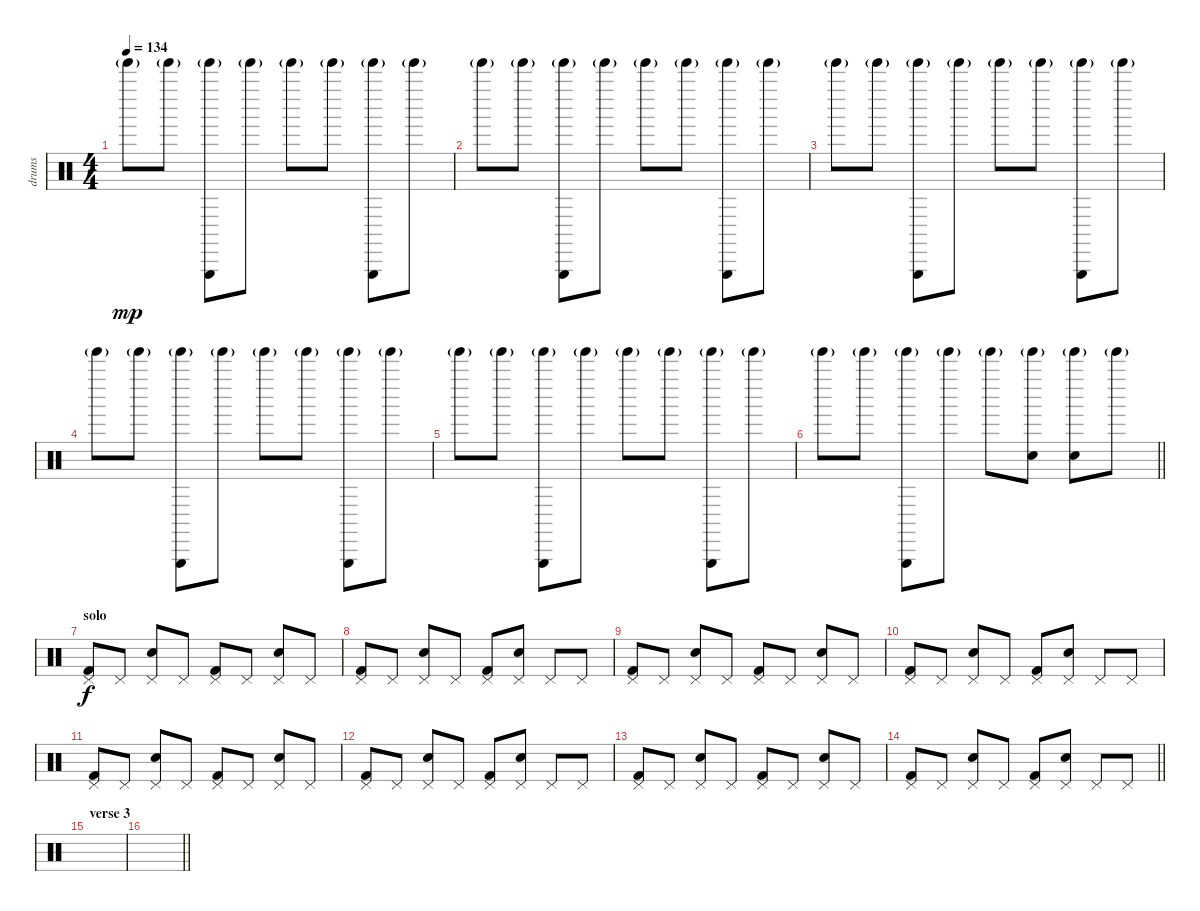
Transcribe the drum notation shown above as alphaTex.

\track ("drums" "drums") {instrument percussion}
\staff {score}
\articulation defaults
\ts (4 4)
\tempo 134
\clef neutral
\ks c "Tinkle Bell (hit)"{g}.8{dy mp} "Tinkle Bell (hit)"{g}.8
("Triangle (hit)" "Tinkle Bell (hit)"{g}).8 "Tinkle Bell (hit)"{g}.8 "Tinkle Bell (hit)"{g}.8 "Tinkle Bell (hit)"{g}.8 ("Triangle (hit)" "Tinkle Bell (hit)"{g}).8 "Tinkle Bell (hit)"{g}.8 |
"Tinkle Bell (hit)"{g}.8 "Tinkle Bell (hit)"{g}.8 ("Triangle (hit)" "Tinkle Bell (hit)"{g}).8 "Tinkle Bell (hit)"{g}.8 "Tinkle Bell (hit)"{g}.8 "Tinkle Bell (hit)"{g}.8 ("Triangle (hit)" "Tinkle Bell (hit)"{g}).8 "Tinkle Bell (hit)"{g}.8 |
"Tinkle Bell (hit)"{g}.8 "Tinkle Bell (hit)"{g}.8 ("Triangle (hit)" "Tinkle Bell (hit)"{g}).8 "Tinkle Bell (hit)"{g}.8 "Tinkle Bell (hit)"{g}.8 "Tinkle Bell (hit)"{g}.8 ("Triangle (hit)" "Tinkle Bell (hit)"{g}).8 "Tinkle Bell (hit)"{g}.8 |
"Tinkle Bell (hit)"{g}.8 "Tinkle Bell (hit)"{g}.8 ("Triangle (hit)" "Tinkle Bell (hit)"{g}).8 "Tinkle Bell (hit)"{g}.8 "Tinkle Bell (hit)"{g}.8 "Tinkle Bell (hit)"{g}.8 ("Triangle (hit)" "Tinkle Bell (hit)"{g}).8 "Tinkle Bell (hit)"{g}.8 |
"Tinkle Bell (hit)"{g}.8 "Tinkle Bell (hit)"{g}.8 ("Triangle (hit)" "Tinkle Bell (hit)"{g}).8 "Tinkle Bell (hit)"{g}.8 "Tinkle Bell (hit)"{g}.8 "Tinkle Bell (hit)"{g}.8 ("Triangle (hit)" "Tinkle Bell (hit)"{g}).8 "Tinkle Bell (hit)"{g}.8 |
\barLineRight lightlight "Tinkle Bell (hit)"{g}.8 "Tinkle Bell (hit)"{g}.8
("Triangle (hit)" "Tinkle Bell (hit)"{g}).8 "Tinkle Bell (hit)"{g}.8 "Tinkle Bell (hit)"{g}.8 ("Snare (hit) 2" "Tinkle Bell (hit)"{g}).8 ("Snare (hit) 2" "Tinkle Bell (hit)"{g}).8 "Tinkle Bell (hit)"{g}.8 |
\section ("" "solo ")
("Kick (hit) 2" "Pedal Hi-Hat (hit)").8{dy f} "Pedal Hi-Hat (hit)".8 ("Snare (hit) 2" "Pedal Hi-Hat (hit)").8 "Pedal Hi-Hat (hit)".8 ("Kick (hit) 2" "Pedal Hi-Hat (hit)").8 "Pedal Hi-Hat (hit)".8 ("Snare (hit) 2" "Pedal Hi-Hat (hit)").8 "Pedal Hi-Hat (hit)".8 |
("Kick (hit) 2" "Pedal Hi-Hat (hit)").8 "Pedal Hi-Hat (hit)".8 ("Snare (hit) 2" "Pedal Hi-Hat (hit)").8 "Pedal Hi-Hat (hit)".8 ("Kick (hit) 2" "Pedal Hi-Hat (hit)").8 ("Snare (hit) 2" "Pedal Hi-Hat (hit)").8 "Pedal Hi-Hat (hit)".8 "Pedal Hi-Hat (hit)".8 |
("Kick (hit) 2" "Pedal Hi-Hat (hit)").8 "Pedal Hi-Hat (hit)".8 ("Snare (hit) 2" "Pedal Hi-Hat (hit)").8 "Pedal Hi-Hat (hit)".8 ("Kick (hit) 2" "Pedal Hi-Hat (hit)").8 "Pedal Hi-Hat (hit)".8 ("Snare (hit) 2" "Pedal Hi-Hat (hit)").8 "Pedal Hi-Hat (hit)".8 |
("Kick (hit) 2" "Pedal Hi-Hat (hit)").8 "Pedal Hi-Hat (hit)".8 ("Snare (hit) 2" "Pedal Hi-Hat (hit)").8 "Pedal Hi-Hat (hit)".8 ("Kick (hit) 2" "Pedal Hi-Hat (hit)").8 ("Snare (hit) 2" "Pedal Hi-Hat (hit)").8 "Pedal Hi-Hat (hit)".8 "Pedal Hi-Hat (hit)".8 |
("Kick (hit) 2" "Pedal Hi-Hat (hit)").8 "Pedal Hi-Hat (hit)".8 ("Snare (hit) 2" "Pedal Hi-Hat (hit)").8 "Pedal Hi-Hat (hit)".8 ("Kick (hit) 2" "Pedal Hi-Hat (hit)").8 "Pedal Hi-Hat (hit)".8 ("Snare (hit) 2" "Pedal Hi-Hat (hit)").8 "Pedal Hi-Hat (hit)".8 |
("Kick (hit) 2" "Pedal Hi-Hat (hit)").8 "Pedal Hi-Hat (hit)".8 ("Snare (hit) 2" "Pedal Hi-Hat (hit)").8 "Pedal Hi-Hat (hit)".8 ("Kick (hit) 2" "Pedal Hi-Hat (hit)").8 ("Snare (hit) 2" "Pedal Hi-Hat (hit)").8 "Pedal Hi-Hat (hit)".8 "Pedal Hi-Hat (hit)".8 |
("Kick (hit) 2" "Pedal Hi-Hat (hit)").8 "Pedal Hi-Hat (hit)".8 ("Snare (hit) 2" "Pedal Hi-Hat (hit)").8 "Pedal Hi-Hat (hit)".8 ("Kick (hit) 2" "Pedal Hi-Hat (hit)").8 "Pedal Hi-Hat (hit)".8 ("Snare (hit) 2" "Pedal Hi-Hat (hit)").8 "Pedal Hi-Hat (hit)".8 |
\barLineRight lightlight
("Kick (hit) 2" "Pedal Hi-Hat (hit)").8 "Pedal Hi-Hat (hit)".8 ("Snare (hit) 2" "Pedal Hi-Hat (hit)").8 "Pedal Hi-Hat (hit)".8 ("Kick (hit) 2" "Pedal Hi-Hat (hit)").8 ("Snare (hit) 2" "Pedal Hi-Hat (hit)").8 "Pedal Hi-Hat (hit)".8 "Pedal Hi-Hat (hit)".8 |
\section ("" "verse 3")
|
\barLineRight lightlight
